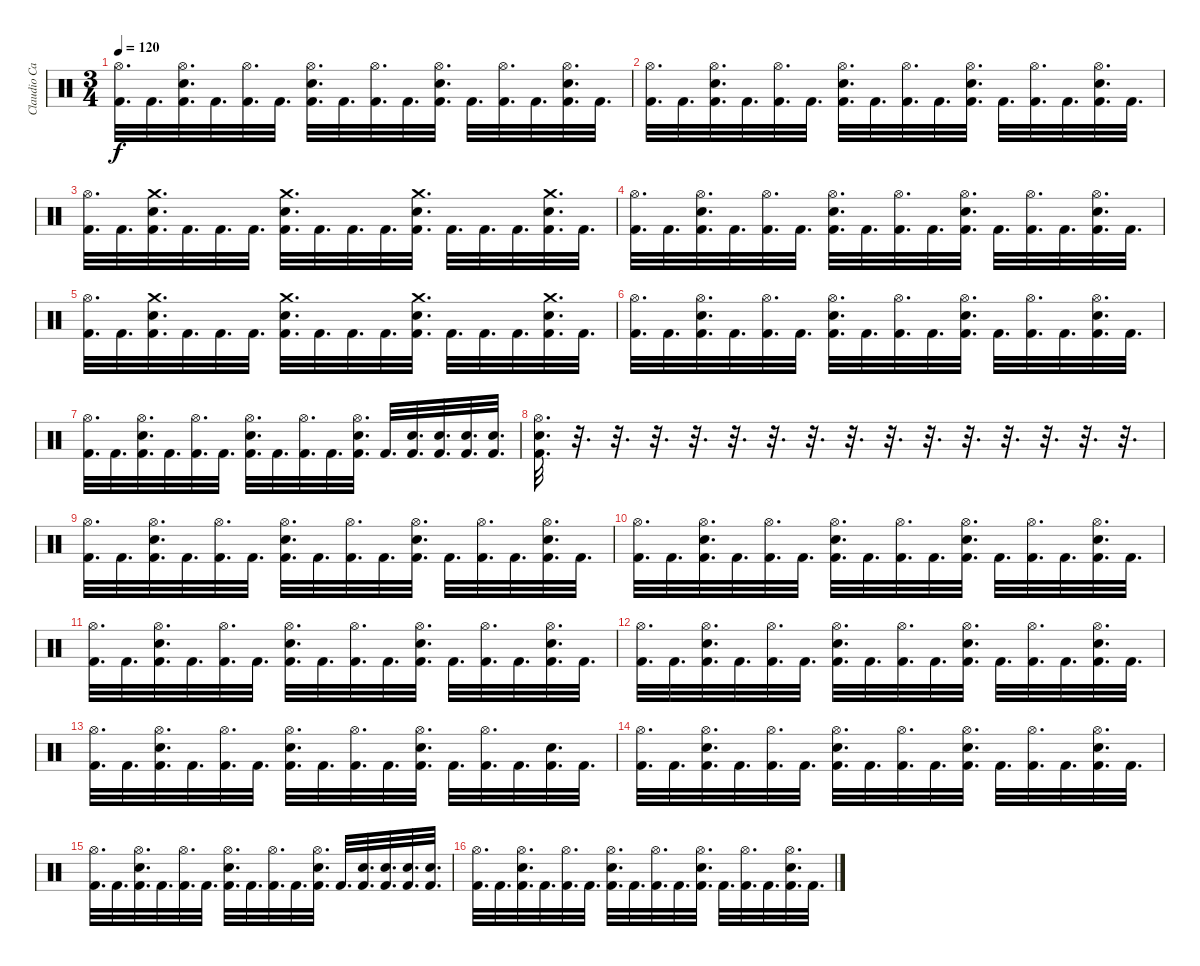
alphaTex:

\track ("Claudio Cardacci" "Claudio Ca") {instrument percussion}
\staff {score}
\articulation defaults
\ts (3 4)
\tempo 120
\clef neutral
\ks c
("Hi-Hat (open)" "Kick (hit) 2").32{d dy f} "Kick (hit) 2".32{d} ("Snare (hit) 2" "Hi-Hat (open)" "Kick (hit) 2").32{d} "Kick (hit) 2".32{d} ("Hi-Hat (open)" "Kick (hit) 2").32{d} "Kick (hit) 2".32{d} ("Snare (hit) 2" "Hi-Hat (open)" "Kick (hit) 2").32{d} "Kick (hit) 2".32{d} ("Hi-Hat (open)" "Kick (hit) 2").32{d} "Kick (hit) 2".32{d} ("Snare (hit) 2" "Hi-Hat (open)" "Kick (hit) 2").32{d} "Kick (hit) 2".32{d} ("Hi-Hat (open)" "Kick (hit) 2").32{d} "Kick (hit) 2".32{d} ("Snare (hit) 2" "Hi-Hat (open)" "Kick (hit) 2").32{d} "Kick (hit) 2".32{d} |
("Hi-Hat (open)" "Kick (hit) 2").32{d} "Kick (hit) 2".32{d} ("Snare (hit) 2" "Hi-Hat (open)" "Kick (hit) 2").32{d} "Kick (hit) 2".32{d} ("Hi-Hat (open)" "Kick (hit) 2").32{d} "Kick (hit) 2".32{d} ("Snare (hit) 2" "Hi-Hat (open)" "Kick (hit) 2").32{d} "Kick (hit) 2".32{d} ("Hi-Hat (open)" "Kick (hit) 2").32{d} "Kick (hit) 2".32{d} ("Snare (hit) 2" "Hi-Hat (open)" "Kick (hit) 2").32{d} "Kick (hit) 2".32{d} ("Hi-Hat (open)" "Kick (hit) 2").32{d} "Kick (hit) 2".32{d} ("Snare (hit) 2" "Hi-Hat (open)" "Kick (hit) 2").32{d} "Kick (hit) 2".32{d} |
("Hi-Hat (open)" "Kick (hit) 2").32{d} "Kick (hit) 2".32{d} ("Crash medium (hit)" "Snare (hit) 2" "Kick (hit) 2").32{d} "Kick (hit) 2".32{d} "Kick (hit) 2".32{d} "Kick (hit) 2".32{d} ("Crash medium (hit)" "Snare (hit) 2" "Kick (hit) 2").32{d} "Kick (hit) 2".32{d} "Kick (hit) 2".32{d} "Kick (hit) 2".32{d} ("Crash medium (hit)" "Snare (hit) 2" "Kick (hit) 2").32{d} "Kick (hit) 2".32{d} "Kick (hit) 2".32{d} "Kick (hit) 2".32{d} ("Crash medium (hit)" "Snare (hit) 2" "Kick (hit) 2").32{d} "Kick (hit) 2".32{d} |
("Hi-Hat (open)" "Kick (hit) 2").32{d} "Kick (hit) 2".32{d} ("Snare (hit) 2" "Hi-Hat (open)" "Kick (hit) 2").32{d} "Kick (hit) 2".32{d} ("Hi-Hat (open)" "Kick (hit) 2").32{d} "Kick (hit) 2".32{d} ("Snare (hit) 2" "Hi-Hat (open)" "Kick (hit) 2").32{d} "Kick (hit) 2".32{d} ("Hi-Hat (open)" "Kick (hit) 2").32{d} "Kick (hit) 2".32{d} ("Snare (hit) 2" "Hi-Hat (open)" "Kick (hit) 2").32{d} "Kick (hit) 2".32{d} ("Hi-Hat (open)" "Kick (hit) 2").32{d} "Kick (hit) 2".32{d} ("Snare (hit) 2" "Hi-Hat (open)" "Kick (hit) 2").32{d} "Kick (hit) 2".32{d} |
("Hi-Hat (open)" "Kick (hit) 2").32{d} "Kick (hit) 2".32{d} ("Crash medium (hit)" "Snare (hit) 2" "Kick (hit) 2").32{d} "Kick (hit) 2".32{d} "Kick (hit) 2".32{d} "Kick (hit) 2".32{d} ("Crash medium (hit)" "Snare (hit) 2" "Kick (hit) 2").32{d} "Kick (hit) 2".32{d} "Kick (hit) 2".32{d} "Kick (hit) 2".32{d} ("Crash medium (hit)" "Snare (hit) 2" "Kick (hit) 2").32{d} "Kick (hit) 2".32{d} "Kick (hit) 2".32{d} "Kick (hit) 2".32{d} ("Crash medium (hit)" "Snare (hit) 2" "Kick (hit) 2").32{d} "Kick (hit) 2".32{d} |
("Hi-Hat (open)" "Kick (hit) 2").32{d} "Kick (hit) 2".32{d} ("Snare (hit) 2" "Hi-Hat (open)" "Kick (hit) 2").32{d} "Kick (hit) 2".32{d} ("Hi-Hat (open)" "Kick (hit) 2").32{d} "Kick (hit) 2".32{d} ("Snare (hit) 2" "Hi-Hat (open)" "Kick (hit) 2").32{d} "Kick (hit) 2".32{d} ("Hi-Hat (open)" "Kick (hit) 2").32{d} "Kick (hit) 2".32{d} ("Snare (hit) 2" "Hi-Hat (open)" "Kick (hit) 2").32{d} "Kick (hit) 2".32{d} ("Hi-Hat (open)" "Kick (hit) 2").32{d} "Kick (hit) 2".32{d} ("Snare (hit) 2" "Hi-Hat (open)" "Kick (hit) 2").32{d} "Kick (hit) 2".32{d} |
("Hi-Hat (open)" "Kick (hit) 2").32{d} "Kick (hit) 2".32{d} ("Snare (hit) 2" "Hi-Hat (open)" "Kick (hit) 2").32{d} "Kick (hit) 2".32{d} ("Hi-Hat (open)" "Kick (hit) 2").32{d} "Kick (hit) 2".32{d} ("Snare (hit) 2" "Hi-Hat (open)" "Kick (hit) 2").32{d} "Kick (hit) 2".32{d} ("Hi-Hat (open)" "Kick (hit) 2").32{d} "Kick (hit) 2".32{d} ("Snare (hit) 2" "Hi-Hat (open)" "Kick (hit) 2").32{d} "Kick (hit) 2".32{d} ("Snare (hit) 2" "Kick (hit) 2").32{d} ("Snare (hit) 2" "Kick (hit) 2").32{d} ("Snare (hit) 2" "Kick (hit) 2").32{d} ("Snare (hit) 2" "Kick (hit) 2").32{d} |
("Snare (hit) 2" "Hi-Hat (open)" "Kick (hit) 2").32{d} r.32{d} r.32{d} r.32{d} r.32{d} r.32{d} r.32{d} r.32{d} r.32{d} r.32{d} r.32{d} r.32{d} r.32{d} r.32{d} r.32{d} r.32{d} |
("Hi-Hat (open)" "Kick (hit) 2").32{d} "Kick (hit) 2".32{d} ("Snare (hit) 2" "Hi-Hat (open)" "Kick (hit) 2").32{d} "Kick (hit) 2".32{d} ("Hi-Hat (open)" "Kick (hit) 2").32{d} "Kick (hit) 2".32{d} ("Snare (hit) 2" "Hi-Hat (open)" "Kick (hit) 2").32{d} "Kick (hit) 2".32{d} ("Hi-Hat (open)" "Kick (hit) 2").32{d} "Kick (hit) 2".32{d} ("Snare (hit) 2" "Hi-Hat (open)" "Kick (hit) 2").32{d} "Kick (hit) 2".32{d} ("Hi-Hat (open)" "Kick (hit) 2").32{d} "Kick (hit) 2".32{d} ("Snare (hit) 2" "Hi-Hat (open)" "Kick (hit) 2").32{d} "Kick (hit) 2".32{d} |
("Hi-Hat (open)" "Kick (hit) 2").32{d} "Kick (hit) 2".32{d} ("Snare (hit) 2" "Hi-Hat (open)" "Kick (hit) 2").32{d} "Kick (hit) 2".32{d} ("Hi-Hat (open)" "Kick (hit) 2").32{d} "Kick (hit) 2".32{d} ("Snare (hit) 2" "Hi-Hat (open)" "Kick (hit) 2").32{d} "Kick (hit) 2".32{d} ("Hi-Hat (open)" "Kick (hit) 2").32{d} "Kick (hit) 2".32{d} ("Snare (hit) 2" "Hi-Hat (open)" "Kick (hit) 2").32{d} "Kick (hit) 2".32{d} ("Hi-Hat (open)" "Kick (hit) 2").32{d} "Kick (hit) 2".32{d} ("Snare (hit) 2" "Hi-Hat (open)" "Kick (hit) 2").32{d} "Kick (hit) 2".32{d} |
("Hi-Hat (open)" "Kick (hit) 2").32{d} "Kick (hit) 2".32{d} ("Snare (hit) 2" "Hi-Hat (open)" "Kick (hit) 2").32{d} "Kick (hit) 2".32{d} ("Hi-Hat (open)" "Kick (hit) 2").32{d} "Kick (hit) 2".32{d} ("Snare (hit) 2" "Hi-Hat (open)" "Kick (hit) 2").32{d} "Kick (hit) 2".32{d} ("Hi-Hat (open)" "Kick (hit) 2").32{d} "Kick (hit) 2".32{d} ("Snare (hit) 2" "Hi-Hat (open)" "Kick (hit) 2").32{d} "Kick (hit) 2".32{d} ("Hi-Hat (open)" "Kick (hit) 2").32{d} "Kick (hit) 2".32{d} ("Snare (hit) 2" "Hi-Hat (open)" "Kick (hit) 2").32{d} "Kick (hit) 2".32{d} |
("Hi-Hat (open)" "Kick (hit) 2").32{d} "Kick (hit) 2".32{d} ("Snare (hit) 2" "Hi-Hat (open)" "Kick (hit) 2").32{d} "Kick (hit) 2".32{d} ("Hi-Hat (open)" "Kick (hit) 2").32{d} "Kick (hit) 2".32{d} ("Snare (hit) 2" "Hi-Hat (open)" "Kick (hit) 2").32{d} "Kick (hit) 2".32{d} ("Hi-Hat (open)" "Kick (hit) 2").32{d} "Kick (hit) 2".32{d} ("Snare (hit) 2" "Hi-Hat (open)" "Kick (hit) 2").32{d} "Kick (hit) 2".32{d} ("Hi-Hat (open)" "Kick (hit) 2").32{d} "Kick (hit) 2".32{d} ("Snare (hit) 2" "Hi-Hat (open)" "Kick (hit) 2").32{d} "Kick (hit) 2".32{d} |
("Hi-Hat (open)" "Kick (hit) 2").32{d} "Kick (hit) 2".32{d} ("Snare (hit) 2" "Hi-Hat (open)" "Kick (hit) 2").32{d} "Kick (hit) 2".32{d} ("Hi-Hat (open)" "Kick (hit) 2").32{d} "Kick (hit) 2".32{d} ("Snare (hit) 2" "Hi-Hat (open)" "Kick (hit) 2").32{d} "Kick (hit) 2".32{d} ("Hi-Hat (open)" "Kick (hit) 2").32{d} "Kick (hit) 2".32{d} ("Snare (hit) 2" "Hi-Hat (open)" "Kick (hit) 2").32{d} "Kick (hit) 2".32{d} ("Hi-Hat (open)" "Kick (hit) 2").32{d} "Kick (hit) 2".32{d} ("Snare (hit) 2" "Kick (hit) 2").32{d} "Kick (hit) 2".32{d} |
("Hi-Hat (open)" "Kick (hit) 2").32{d} "Kick (hit) 2".32{d} ("Snare (hit) 2" "Hi-Hat (open)" "Kick (hit) 2").32{d} "Kick (hit) 2".32{d} ("Hi-Hat (open)" "Kick (hit) 2").32{d} "Kick (hit) 2".32{d} ("Snare (hit) 2" "Hi-Hat (open)" "Kick (hit) 2").32{d} "Kick (hit) 2".32{d} ("Hi-Hat (open)" "Kick (hit) 2").32{d} "Kick (hit) 2".32{d} ("Snare (hit) 2" "Hi-Hat (open)" "Kick (hit) 2").32{d} "Kick (hit) 2".32{d} ("Hi-Hat (open)" "Kick (hit) 2").32{d} "Kick (hit) 2".32{d} ("Snare (hit) 2" "Hi-Hat (open)" "Kick (hit) 2").32{d} "Kick (hit) 2".32{d} |
("Hi-Hat (open)" "Kick (hit) 2").32{d} "Kick (hit) 2".32{d} ("Snare (hit) 2" "Hi-Hat (open)" "Kick (hit) 2").32{d} "Kick (hit) 2".32{d} ("Hi-Hat (open)" "Kick (hit) 2").32{d} "Kick (hit) 2".32{d} ("Snare (hit) 2" "Hi-Hat (open)" "Kick (hit) 2").32{d} "Kick (hit) 2".32{d} ("Hi-Hat (open)" "Kick (hit) 2").32{d} "Kick (hit) 2".32{d} ("Snare (hit) 2" "Hi-Hat (open)" "Kick (hit) 2").32{d} "Kick (hit) 2".32{d} ("Snare (hit) 2" "Kick (hit) 2").32{d} ("Snare (hit) 2" "Kick (hit) 2").32{d} ("Snare (hit) 2" "Kick (hit) 2").32{d} ("Snare (hit) 2" "Kick (hit) 2").32{d} |
("Hi-Hat (open)" "Kick (hit) 2").32{d} "Kick (hit) 2".32{d} ("Snare (hit) 2" "Hi-Hat (open)" "Kick (hit) 2").32{d} "Kick (hit) 2".32{d} ("Hi-Hat (open)" "Kick (hit) 2").32{d} "Kick (hit) 2".32{d} ("Snare (hit) 2" "Hi-Hat (open)" "Kick (hit) 2").32{d} "Kick (hit) 2".32{d} ("Hi-Hat (open)" "Kick (hit) 2").32{d} "Kick (hit) 2".32{d} ("Snare (hit) 2" "Hi-Hat (open)" "Kick (hit) 2").32{d} "Kick (hit) 2".32{d} ("Hi-Hat (open)" "Kick (hit) 2").32{d} "Kick (hit) 2".32{d} ("Snare (hit) 2" "Hi-Hat (open)" "Kick (hit) 2").32{d} "Kick (hit) 2".32{d}
